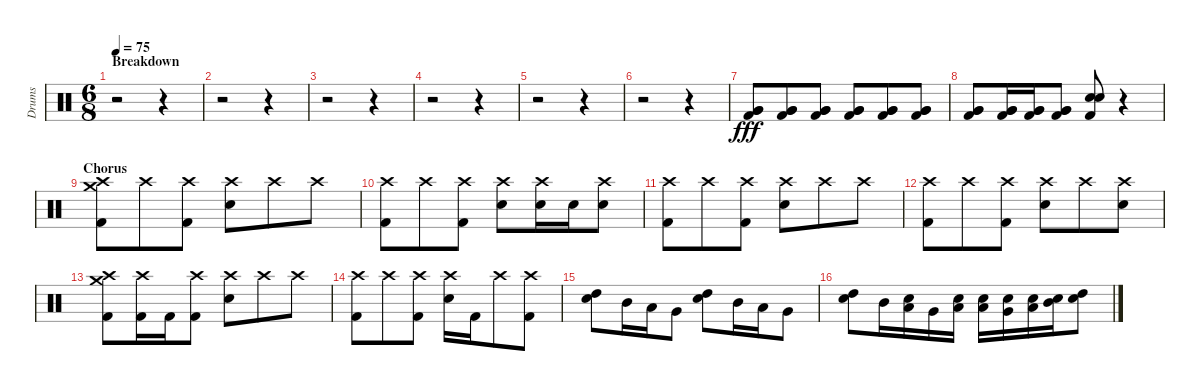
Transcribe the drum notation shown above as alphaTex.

\track ("Drums" "Drums") {instrument percussion}
\staff {score}
\articulation defaults
\ts (6 8)
\section ("" "Breakdown")
\tempo 75
\clef neutral
\ks c
r.2{dy fff} r.4 |
r.2 r.4 |
r.2 r.4 |
r.2 r.4 |
r.2 r.4 |
r.2 r.4 |
("Very Low Tom (hit)" "Very Low Tom (hit)" "Kick (hit) 2").8 ("Very Low Tom (hit)" "Very Low Tom (hit)" "Kick (hit) 2").8 ("Very Low Tom (hit)" "Very Low Tom (hit)" "Kick (hit) 2").8 ("Very Low Tom (hit)" "Very Low Tom (hit)" "Kick (hit) 2").8 ("Very Low Tom (hit)" "Very Low Tom (hit)" "Kick (hit) 2").8 ("Very Low Tom (hit)" "Very Low Tom (hit)" "Kick (hit) 2").8 |
("Very Low Tom (hit)" "Very Low Tom (hit)" "Kick (hit) 2").8 ("Very Low Tom (hit)" "Very Low Tom (hit)" "Kick (hit) 2").16 ("Very Low Tom (hit)" "Very Low Tom (hit)" "Kick (hit) 2").16 ("Very Low Tom (hit)" "Very Low Tom (hit)" "Kick (hit) 2").8 ("Electric Snare (hit)" "Electric Snare (hit)" "Kick (hit) 2").8 r.4 |
\section ("" "Chorus")
("Crash high (hit)" "Crash medium (hit)" "Kick (hit) 2").8 "Crash high (hit)".8 ("Crash high (hit)" "Kick (hit) 2").8 ("Crash high (hit)" "Electric Snare (hit)").8 "Crash high (hit)".8 "Crash high (hit)".8 |
("Crash high (hit)" "Kick (hit) 2").8 "Crash high (hit)".8 ("Crash high (hit)" "Kick (hit) 2").8 ("Crash high (hit)" "Electric Snare (hit)").8 ("Crash high (hit)" "Electric Snare (hit)").16 "Electric Snare (hit)".16 ("Crash high (hit)" "Electric Snare (hit)").8 |
("Crash high (hit)" "Kick (hit) 2").8 "Crash high (hit)".8 ("Crash high (hit)" "Kick (hit) 2").8 ("Crash high (hit)" "Electric Snare (hit)").8 "Crash high (hit)".8 "Crash high (hit)".8 |
("Crash high (hit)" "Kick (hit) 2").8 "Crash high (hit)".8 ("Crash high (hit)" "Kick (hit) 2").8 ("Crash high (hit)" "Electric Snare (hit)").8 "Crash high (hit)".8 ("Crash high (hit)" "Electric Snare (hit)").8 |
("Crash high (hit)" "Crash medium (hit)" "Kick (hit) 2").8 ("Crash high (hit)" "Kick (hit) 2").16 "Kick (hit) 2".16 ("Crash high (hit)" "Kick (hit) 2").8 ("Crash high (hit)" "Electric Snare (hit)").8 "Crash high (hit)".8 "Crash high (hit)".8 |
("Crash high (hit)" "Kick (hit) 2").8 "Crash high (hit)".8 ("Crash high (hit)" "Kick (hit) 2").8 ("Crash high (hit)" "Electric Snare (hit)").16 "Kick (hit) 2".16 "Crash high (hit)".8 ("Crash high (hit)" "Kick (hit) 2").8 |
("High Tom (hit)" "Electric Snare (hit)").8 "Mid Tom (hit)".16 "Low Tom (hit)".16 "Very Low Tom (hit)".8 ("High Tom (hit)" "Electric Snare (hit)").8 "Mid Tom (hit)".16 "Low Tom (hit)".16 "Very Low Tom (hit)".8 |
("High Tom (hit)" "Electric Snare (hit)").8 "Mid Tom (hit)".16 ("Low Tom (hit)" "Electric Snare (hit)").16 "Very Low Tom (hit)".16 ("Low Floor Tom (hit)" "Electric Snare (hit)").16 ("Low Floor Tom (hit)" "Electric Snare (hit)").16 ("Very Low Tom (hit)" "Electric Snare (hit)").16 ("Low Tom (hit)" "Electric Snare (hit)").16 ("Mid Tom (hit)" "Electric Snare (hit)").16 ("High Tom (hit)" "Electric Snare (hit)").8
